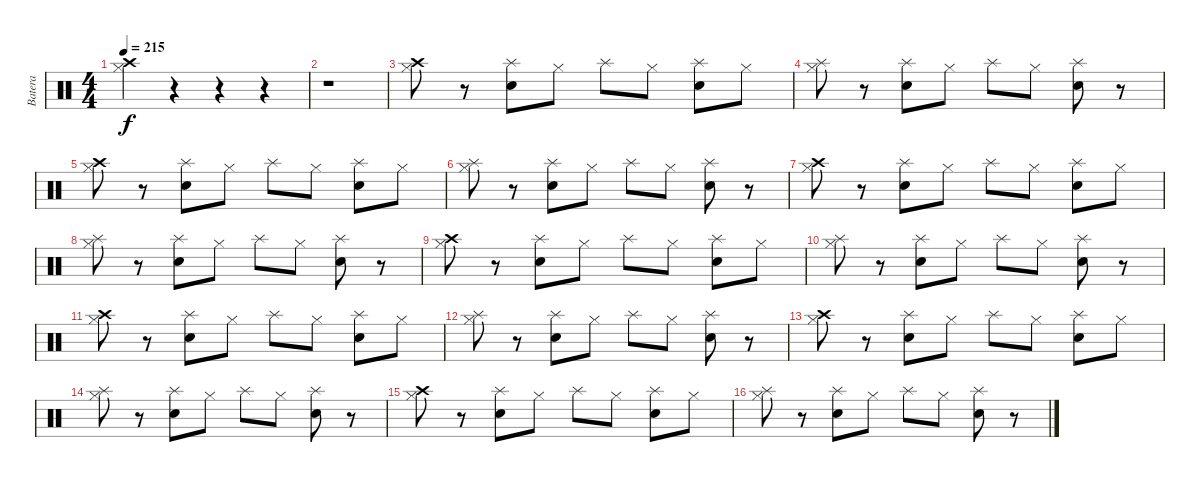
\track ("Batera" "Batera") {instrument percussion}
\staff {score}
\articulation defaults
\ts (4 4)
\tempo 215
\clef neutral
\ks c
("Crash high (hit)" "Hi-Hat (closed)").4{dy f} r.4 r.4 r.4 |
r.1 |
("Crash high (hit)" "Hi-Hat (closed)").8 r.8 ("Splash (hit)" "Electric Snare (hit)").8 "Hi-Hat (closed)".8 "Splash (hit)".8 "Hi-Hat (closed)".8 ("Splash (hit)" "Electric Snare (hit)").8 "Hi-Hat (closed)".8 |
("Splash (hit)" "Hi-Hat (closed)").8 r.8 ("Splash (hit)" "Electric Snare (hit)").8 "Hi-Hat (closed)".8 "Splash (hit)".8 "Hi-Hat (closed)".8 ("Splash (hit)" "Electric Snare (hit)").8 r.8 |
("Crash high (hit)" "Hi-Hat (closed)").8 r.8 ("Splash (hit)" "Electric Snare (hit)").8 "Hi-Hat (closed)".8 "Splash (hit)".8 "Hi-Hat (closed)".8 ("Splash (hit)" "Electric Snare (hit)").8 "Hi-Hat (closed)".8 |
("Splash (hit)" "Hi-Hat (closed)").8 r.8 ("Splash (hit)" "Electric Snare (hit)").8 "Hi-Hat (closed)".8 "Splash (hit)".8 "Hi-Hat (closed)".8 ("Splash (hit)" "Electric Snare (hit)").8 r.8 |
("Crash high (hit)" "Hi-Hat (closed)").8 r.8 ("Splash (hit)" "Electric Snare (hit)").8 "Hi-Hat (closed)".8 "Splash (hit)".8 "Hi-Hat (closed)".8 ("Splash (hit)" "Electric Snare (hit)").8 "Hi-Hat (closed)".8 |
("Splash (hit)" "Hi-Hat (closed)").8 r.8 ("Splash (hit)" "Electric Snare (hit)").8 "Hi-Hat (closed)".8 "Splash (hit)".8 "Hi-Hat (closed)".8 ("Splash (hit)" "Electric Snare (hit)").8 r.8 |
("Crash high (hit)" "Hi-Hat (closed)").8 r.8 ("Splash (hit)" "Electric Snare (hit)").8 "Hi-Hat (closed)".8 "Splash (hit)".8 "Hi-Hat (closed)".8 ("Splash (hit)" "Electric Snare (hit)").8 "Hi-Hat (closed)".8 |
("Splash (hit)" "Hi-Hat (closed)").8 r.8 ("Splash (hit)" "Electric Snare (hit)").8 "Hi-Hat (closed)".8 "Splash (hit)".8 "Hi-Hat (closed)".8 ("Splash (hit)" "Electric Snare (hit)").8 r.8 |
("Crash high (hit)" "Hi-Hat (closed)").8 r.8 ("Splash (hit)" "Electric Snare (hit)").8 "Hi-Hat (closed)".8 "Splash (hit)".8 "Hi-Hat (closed)".8 ("Splash (hit)" "Electric Snare (hit)").8 "Hi-Hat (closed)".8 |
("Splash (hit)" "Hi-Hat (closed)").8 r.8 ("Splash (hit)" "Electric Snare (hit)").8 "Hi-Hat (closed)".8 "Splash (hit)".8 "Hi-Hat (closed)".8 ("Splash (hit)" "Electric Snare (hit)").8 r.8 |
("Crash high (hit)" "Hi-Hat (closed)").8 r.8 ("Splash (hit)" "Electric Snare (hit)").8 "Hi-Hat (closed)".8 "Splash (hit)".8 "Hi-Hat (closed)".8 ("Splash (hit)" "Electric Snare (hit)").8 "Hi-Hat (closed)".8 |
("Splash (hit)" "Hi-Hat (closed)").8 r.8 ("Splash (hit)" "Electric Snare (hit)").8 "Hi-Hat (closed)".8 "Splash (hit)".8 "Hi-Hat (closed)".8 ("Splash (hit)" "Electric Snare (hit)").8 r.8 |
("Crash high (hit)" "Hi-Hat (closed)").8 r.8 ("Splash (hit)" "Electric Snare (hit)").8 "Hi-Hat (closed)".8 "Splash (hit)".8 "Hi-Hat (closed)".8 ("Splash (hit)" "Electric Snare (hit)").8 "Hi-Hat (closed)".8 |
("Splash (hit)" "Hi-Hat (closed)").8 r.8 ("Splash (hit)" "Electric Snare (hit)").8 "Hi-Hat (closed)".8 "Splash (hit)".8 "Hi-Hat (closed)".8 ("Splash (hit)" "Electric Snare (hit)").8 r.8
